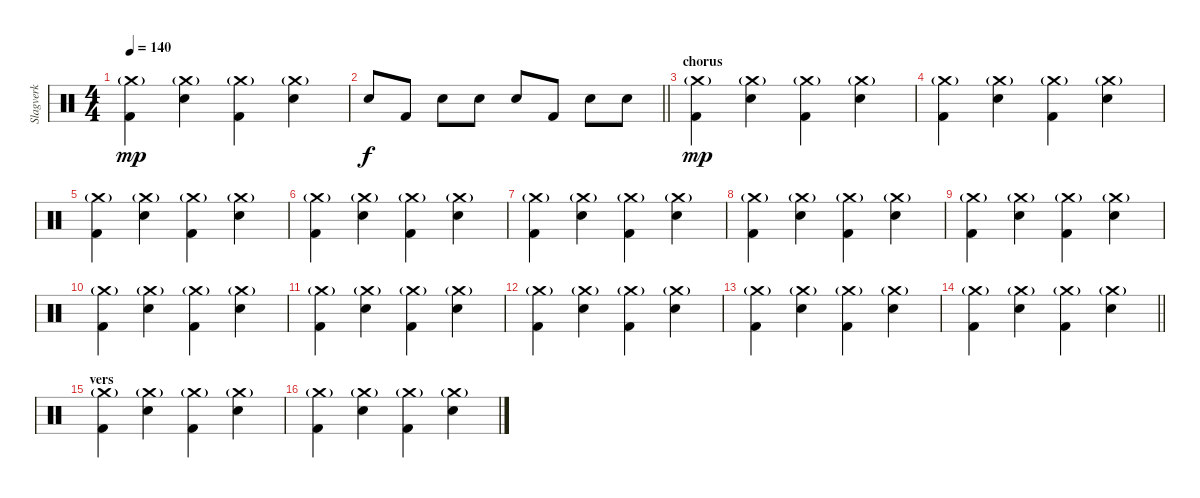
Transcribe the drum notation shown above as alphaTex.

\track ("Slagverk" "Slagverk") {instrument percussion}
\staff {score}
\articulation defaults
\ts (4 4)
\tempo 140
\clef neutral
\ks c
("Kick (hit) 2" "Crash medium (hit)"{g}).4{dy mp} ("Snare (hit) 2" "Crash medium (hit)"{g}).4 ("Kick (hit) 2" "Crash medium (hit)"{g}).4 ("Snare (hit) 2" "Crash medium (hit)"{g}).4 |
\barLineRight lightlight "Snare (hit) 2".8{dy f} "Kick (hit) 2".8 "Snare (hit) 2".8 "Snare (hit) 2".8 "Snare (hit) 2".8 "Kick (hit) 2".8 "Snare (hit) 2".8 "Snare (hit) 2".8
|
\section ("" "chorus")
("Kick (hit) 2" "Crash medium (hit)"{g}).4{dy mp} ("Snare (hit) 2" "Crash medium (hit)"{g}).4 ("Kick (hit) 2" "Crash medium (hit)"{g}).4 ("Snare (hit) 2" "Crash medium (hit)"{g}).4 |
("Kick (hit) 2" "Crash medium (hit)"{g}).4 ("Snare (hit) 2" "Crash medium (hit)"{g}).4 ("Kick (hit) 2" "Crash medium (hit)"{g}).4 ("Snare (hit) 2" "Crash medium (hit)"{g}).4 |
("Kick (hit) 2" "Crash medium (hit)"{g}).4 ("Snare (hit) 2" "Crash medium (hit)"{g}).4 ("Kick (hit) 2" "Crash medium (hit)"{g}).4 ("Snare (hit) 2" "Crash medium (hit)"{g}).4 |
("Kick (hit) 2" "Crash medium (hit)"{g}).4 ("Snare (hit) 2" "Crash medium (hit)"{g}).4 ("Kick (hit) 2" "Crash medium (hit)"{g}).4 ("Snare (hit) 2" "Crash medium (hit)"{g}).4 |
("Kick (hit) 2" "Crash medium (hit)"{g}).4 ("Snare (hit) 2" "Crash medium (hit)"{g}).4 ("Kick (hit) 2" "Crash medium (hit)"{g}).4 ("Snare (hit) 2" "Crash medium (hit)"{g}).4 |
("Kick (hit) 2" "Crash medium (hit)"{g}).4 ("Snare (hit) 2" "Crash medium (hit)"{g}).4 ("Kick (hit) 2" "Crash medium (hit)"{g}).4 ("Snare (hit) 2" "Crash medium (hit)"{g}).4 |
("Kick (hit) 2" "Crash medium (hit)"{g}).4 ("Snare (hit) 2" "Crash medium (hit)"{g}).4 ("Kick (hit) 2" "Crash medium (hit)"{g}).4 ("Snare (hit) 2" "Crash medium (hit)"{g}).4 |
("Kick (hit) 2" "Crash medium (hit)"{g}).4 ("Snare (hit) 2" "Crash medium (hit)"{g}).4 ("Kick (hit) 2" "Crash medium (hit)"{g}).4 ("Snare (hit) 2" "Crash medium (hit)"{g}).4 |
("Kick (hit) 2" "Crash medium (hit)"{g}).4 ("Snare (hit) 2" "Crash medium (hit)"{g}).4 ("Kick (hit) 2" "Crash medium (hit)"{g}).4 ("Snare (hit) 2" "Crash medium (hit)"{g}).4 |
("Kick (hit) 2" "Crash medium (hit)"{g}).4 ("Snare (hit) 2" "Crash medium (hit)"{g}).4 ("Kick (hit) 2" "Crash medium (hit)"{g}).4 ("Snare (hit) 2" "Crash medium (hit)"{g}).4 |
("Kick (hit) 2" "Crash medium (hit)"{g}).4 ("Snare (hit) 2" "Crash medium (hit)"{g}).4 ("Kick (hit) 2" "Crash medium (hit)"{g}).4 ("Snare (hit) 2" "Crash medium (hit)"{g}).4 |
\barLineRight lightlight
("Kick (hit) 2" "Crash medium (hit)"{g}).4 ("Snare (hit) 2" "Crash medium (hit)"{g}).4 ("Kick (hit) 2" "Crash medium (hit)"{g}).4 ("Snare (hit) 2" "Crash medium (hit)"{g}).4 |
\section ("" "vers")
("Kick (hit) 2" "Crash medium (hit)"{g}).4 ("Snare (hit) 2" "Crash medium (hit)"{g}).4 ("Kick (hit) 2" "Crash medium (hit)"{g}).4 ("Snare (hit) 2" "Crash medium (hit)"{g}).4 |
("Kick (hit) 2" "Crash medium (hit)"{g}).4 ("Snare (hit) 2" "Crash medium (hit)"{g}).4 ("Kick (hit) 2" "Crash medium (hit)"{g}).4 ("Snare (hit) 2" "Crash medium (hit)"{g}).4
